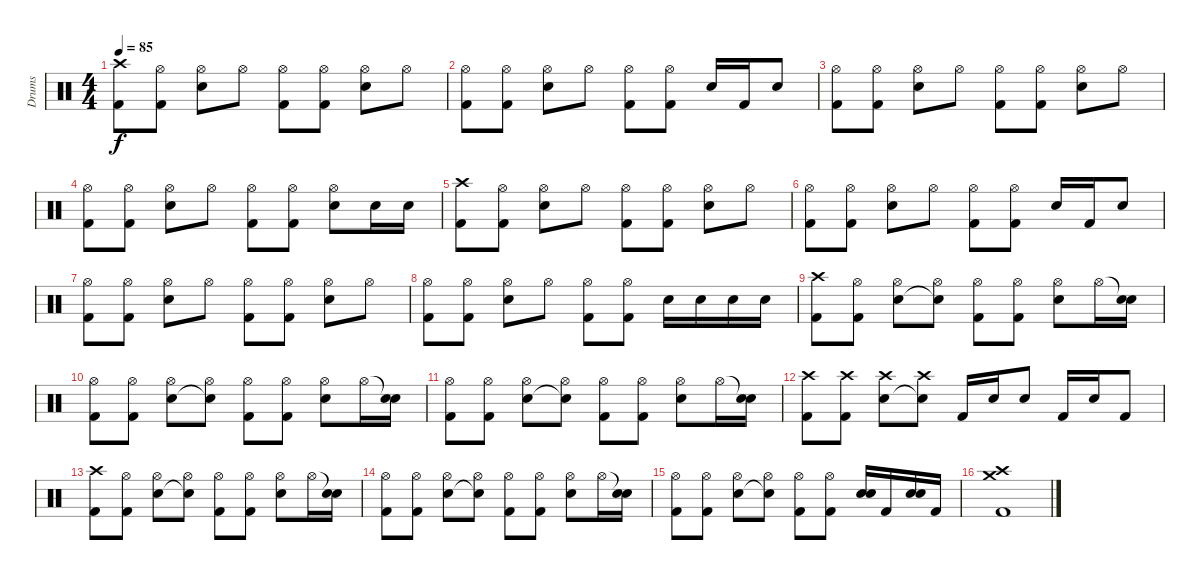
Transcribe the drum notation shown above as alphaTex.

\track ("Drums" "Drums") {instrument percussion}
\staff {score}
\articulation defaults
\ts (4 4)
\tempo 85
\clef neutral
\ks c
("Crash high (hit)" "Kick (hit) 2").8{dy f} ("Hi-Hat (open)" "Kick (hit) 2").8 ("Hi-Hat (open)" "Snare (hit) 2").8 "Hi-Hat (open)".8 ("Hi-Hat (open)" "Kick (hit) 2").8 ("Hi-Hat (open)" "Kick (hit) 2").8 ("Hi-Hat (open)" "Snare (hit) 2").8 "Hi-Hat (open)".8 |
("Hi-Hat (open)" "Kick (hit) 2").8 ("Hi-Hat (open)" "Kick (hit) 2").8 ("Hi-Hat (open)" "Snare (hit) 2").8 "Hi-Hat (open)".8 ("Hi-Hat (open)" "Kick (hit) 2").8 ("Hi-Hat (open)" "Kick (hit) 2").8 "Snare (hit) 2".16 "Kick (hit) 2".16 "Snare (hit) 2".8 |
("Hi-Hat (open)" "Kick (hit) 2").8 ("Hi-Hat (open)" "Kick (hit) 2").8 ("Hi-Hat (open)" "Snare (hit) 2").8 "Hi-Hat (open)".8 ("Hi-Hat (open)" "Kick (hit) 2").8 ("Hi-Hat (open)" "Kick (hit) 2").8 ("Hi-Hat (open)" "Snare (hit) 2").8 "Hi-Hat (open)".8 |
("Hi-Hat (open)" "Kick (hit) 2").8 ("Hi-Hat (open)" "Kick (hit) 2").8 ("Hi-Hat (open)" "Snare (hit) 2").8 "Hi-Hat (open)".8 ("Hi-Hat (open)" "Kick (hit) 2").8 ("Hi-Hat (open)" "Kick (hit) 2").8 ("Hi-Hat (open)" "Snare (hit) 2").8 "Snare (hit) 2".16 "Snare (hit) 2".16 |
("Crash high (hit)" "Kick (hit) 2").8 ("Hi-Hat (open)" "Kick (hit) 2").8 ("Hi-Hat (open)" "Snare (hit) 2").8 "Hi-Hat (open)".8 ("Hi-Hat (open)" "Kick (hit) 2").8 ("Hi-Hat (open)" "Kick (hit) 2").8 ("Hi-Hat (open)" "Snare (hit) 2").8 "Hi-Hat (open)".8 |
("Hi-Hat (open)" "Kick (hit) 2").8 ("Hi-Hat (open)" "Kick (hit) 2").8 ("Hi-Hat (open)" "Snare (hit) 2").8 "Hi-Hat (open)".8 ("Hi-Hat (open)" "Kick (hit) 2").8 ("Hi-Hat (open)" "Kick (hit) 2").8 "Snare (hit) 2".16 "Kick (hit) 2".16 "Snare (hit) 2".8 |
("Hi-Hat (open)" "Kick (hit) 2").8 ("Hi-Hat (open)" "Kick (hit) 2").8 ("Hi-Hat (open)" "Snare (hit) 2").8 "Hi-Hat (open)".8 ("Hi-Hat (open)" "Kick (hit) 2").8 ("Hi-Hat (open)" "Kick (hit) 2").8 ("Hi-Hat (open)" "Snare (hit) 2").8 "Hi-Hat (open)".8 |
("Hi-Hat (open)" "Kick (hit) 2").8 ("Hi-Hat (open)" "Kick (hit) 2").8 ("Hi-Hat (open)" "Snare (hit) 2").8 "Hi-Hat (open)".8 ("Hi-Hat (open)" "Kick (hit) 2").8 ("Hi-Hat (open)" "Kick (hit) 2").8 "Snare (hit) 2".16 "Snare (hit) 2".16 "Snare (hit) 2".16 "Snare (hit) 2".16 |
("Crash high (hit)" "Kick (hit) 2").8 ("Hi-Hat (open)" "Kick (hit) 2").8 ("Hi-Hat (open)" "Snare (hit) 2").8 ("Hi-Hat (open)" "Snare (hit)"{t}).8 ("Hi-Hat (open)" "Kick (hit) 2").8 ("Hi-Hat (open)" "Kick (hit) 2").8 ("Hi-Hat (open)" "Snare (hit) 2").8 "Hi-Hat (open)".16 ("Snare (hit)"{t} "Snare (hit) 2").16 |
("Hi-Hat (open)" "Kick (hit) 2").8 ("Hi-Hat (open)" "Kick (hit) 2").8 ("Hi-Hat (open)" "Snare (hit) 2").8 ("Hi-Hat (open)" "Snare (hit)"{t}).8 ("Hi-Hat (open)" "Kick (hit) 2").8 ("Hi-Hat (open)" "Kick (hit) 2").8 ("Hi-Hat (open)" "Snare (hit) 2").8 "Hi-Hat (open)".16 ("Snare (hit)"{t} "Snare (hit) 2").16 |
("Hi-Hat (open)" "Kick (hit) 2").8 ("Hi-Hat (open)" "Kick (hit) 2").8 ("Hi-Hat (open)" "Snare (hit) 2").8 ("Hi-Hat (open)" "Snare (hit)"{t}).8 ("Hi-Hat (open)" "Kick (hit) 2").8 ("Hi-Hat (open)" "Kick (hit) 2").8 ("Hi-Hat (open)" "Snare (hit) 2").8 "Hi-Hat (open)".16 ("Snare (hit)"{t} "Snare (hit) 2").16 |
("Crash high (hit)" "Kick (hit) 2").8 ("Crash high (hit)" "Kick (hit) 2").8 ("Crash high (hit)" "Snare (hit) 2").8 ("Crash high (hit)" "Snare (hit)"{t}).8 "Kick (hit) 2".16 "Snare (hit) 2".16 "Snare (hit) 2".8 "Kick (hit) 2".16 "Snare (hit) 2".16 "Kick (hit) 2".8 |
("Crash high (hit)" "Kick (hit) 2").8 ("Hi-Hat (open)" "Kick (hit) 2").8 ("Hi-Hat (open)" "Snare (hit) 2").8 ("Hi-Hat (open)" "Snare (hit)"{t}).8 ("Hi-Hat (open)" "Kick (hit) 2").8 ("Hi-Hat (open)" "Kick (hit) 2").8 ("Hi-Hat (open)" "Snare (hit) 2").8 "Hi-Hat (open)".16 ("Snare (hit)"{t} "Snare (hit) 2").16 |
("Hi-Hat (open)" "Kick (hit) 2").8 ("Hi-Hat (open)" "Kick (hit) 2").8 ("Hi-Hat (open)" "Snare (hit) 2").8 ("Hi-Hat (open)" "Snare (hit)"{t}).8 ("Hi-Hat (open)" "Kick (hit) 2").8 ("Hi-Hat (open)" "Kick (hit) 2").8 ("Hi-Hat (open)" "Snare (hit) 2").8 "Hi-Hat (open)".16 ("Snare (hit)"{t} "Snare (hit) 2").16 |
("Hi-Hat (open)" "Kick (hit) 2").8 ("Hi-Hat (open)" "Kick (hit) 2").8 ("Hi-Hat (open)" "Snare (hit) 2").8 ("Hi-Hat (open)" "Snare (hit)"{t}).8 ("Hi-Hat (open)" "Kick (hit) 2").8 ("Hi-Hat (open)" "Kick (hit) 2").8 ("Snare (hit) 2" "Snare (hit) 2").16 "Kick (hit) 2".16 ("Snare (hit) 2" "Snare (hit) 2").16 "Kick (hit) 2".16 |
("Crash high (hit)" "Crash medium (hit)" "Kick (hit) 2").1
